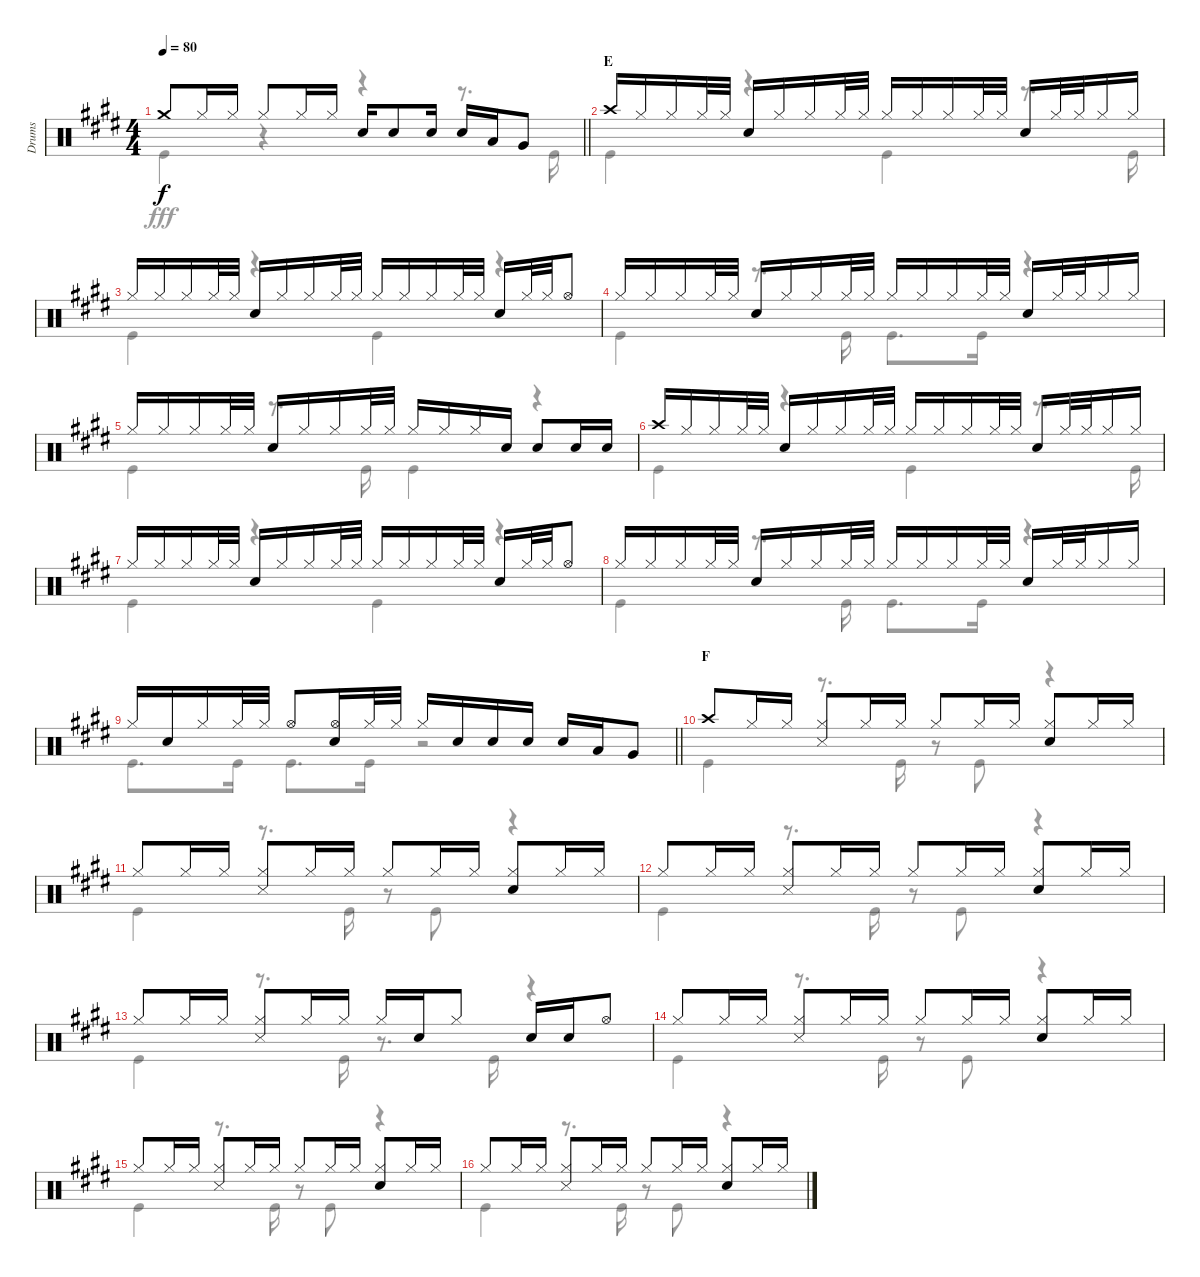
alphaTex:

\track ("Drums" "Drums") {instrument percussion}
\staff {score}
\articulation defaults
\voice
\ts (4 4)
\tempo 80
\clef neutral
\barLineRight lightlight
\ks e "Crash medium (hit)".8{dy f} "Hi-Hat (closed)".16 "Hi-Hat (closed)".16 "Hi-Hat (closed)".8 "Hi-Hat (closed)".16 "Hi-Hat (closed)".16 "Snare (hit) 2".16 "Snare (hit) 2".8 "Snare (hit) 2".16 "Snare (hit) 2".16 "Low Tom (hit)".16 "Very Low Tom (hit)".8
|
\section ("" "E")
"Crash high (hit)".16 "Hi-Hat (closed)".16 "Hi-Hat (closed)".16 "Hi-Hat (closed)".32 "Hi-Hat (closed)".32 "Snare (hit) 2".16 "Hi-Hat (closed)".16 "Hi-Hat (closed)".16 "Hi-Hat (closed)".32 "Hi-Hat (closed)".32 "Hi-Hat (closed)".16 "Hi-Hat (closed)".16 "Hi-Hat (closed)".16 "Hi-Hat (closed)".32 "Hi-Hat (closed)".32 "Snare (hit) 2".16 "Hi-Hat (closed)".32 "Hi-Hat (closed)".32 "Hi-Hat (closed)".16 "Hi-Hat (closed)".16 |
"Hi-Hat (closed)".16 "Hi-Hat (closed)".16 "Hi-Hat (closed)".16 "Hi-Hat (closed)".32 "Hi-Hat (closed)".32 "Snare (hit) 2".16 "Hi-Hat (closed)".16 "Hi-Hat (closed)".16 "Hi-Hat (closed)".32 "Hi-Hat (closed)".32 "Hi-Hat (closed)".16 "Hi-Hat (closed)".16 "Hi-Hat (closed)".16 "Hi-Hat (closed)".32 "Hi-Hat (closed)".32 "Snare (hit) 2".16 "Hi-Hat (closed)".32 "Hi-Hat (closed)".32 "Hi-Hat (open)".8 |
"Hi-Hat (closed)".16 "Hi-Hat (closed)".16 "Hi-Hat (closed)".16 "Hi-Hat (closed)".32 "Hi-Hat (closed)".32 "Snare (hit) 2".16 "Hi-Hat (closed)".16 "Hi-Hat (closed)".16 "Hi-Hat (closed)".32 "Hi-Hat (closed)".32 "Hi-Hat (closed)".16 "Hi-Hat (closed)".16 "Hi-Hat (closed)".16 "Hi-Hat (closed)".32 "Hi-Hat (closed)".32 "Snare (hit) 2".16 "Hi-Hat (closed)".32 "Hi-Hat (closed)".32 "Hi-Hat (closed)".16 "Hi-Hat (closed)".16 |
"Hi-Hat (closed)".16 "Hi-Hat (closed)".16 "Hi-Hat (closed)".16 "Hi-Hat (closed)".32 "Hi-Hat (closed)".32 "Snare (hit) 2".16 "Hi-Hat (closed)".16 "Hi-Hat (closed)".16 "Hi-Hat (closed)".32 "Hi-Hat (closed)".32 "Hi-Hat (closed)".16 "Hi-Hat (closed)".16 "Hi-Hat (closed)".16 "Snare (hit) 2".16 "Snare (hit) 2".8 "Snare (hit) 2".16 "Snare (hit) 2".16 |
"Crash high (hit)".16 "Hi-Hat (closed)".16 "Hi-Hat (closed)".16 "Hi-Hat (closed)".32 "Hi-Hat (closed)".32 "Snare (hit) 2".16 "Hi-Hat (closed)".16 "Hi-Hat (closed)".16 "Hi-Hat (closed)".32 "Hi-Hat (closed)".32 "Hi-Hat (closed)".16 "Hi-Hat (closed)".16 "Hi-Hat (closed)".16 "Hi-Hat (closed)".32 "Hi-Hat (closed)".32 "Snare (hit) 2".16 "Hi-Hat (closed)".32 "Hi-Hat (closed)".32 "Hi-Hat (closed)".16 "Hi-Hat (closed)".16 |
"Hi-Hat (closed)".16 "Hi-Hat (closed)".16 "Hi-Hat (closed)".16 "Hi-Hat (closed)".32 "Hi-Hat (closed)".32 "Snare (hit) 2".16 "Hi-Hat (closed)".16 "Hi-Hat (closed)".16 "Hi-Hat (closed)".32 "Hi-Hat (closed)".32 "Hi-Hat (closed)".16 "Hi-Hat (closed)".16 "Hi-Hat (closed)".16 "Hi-Hat (closed)".32 "Hi-Hat (closed)".32 "Snare (hit) 2".16 "Hi-Hat (closed)".32 "Hi-Hat (closed)".32 "Hi-Hat (open)".8 |
"Hi-Hat (closed)".16 "Hi-Hat (closed)".16 "Hi-Hat (closed)".16 "Hi-Hat (closed)".32 "Hi-Hat (closed)".32 "Snare (hit) 2".16 "Hi-Hat (closed)".16 "Hi-Hat (closed)".16 "Hi-Hat (closed)".32 "Hi-Hat (closed)".32 "Hi-Hat (closed)".16 "Hi-Hat (closed)".16 "Hi-Hat (closed)".16 "Hi-Hat (closed)".32 "Hi-Hat (closed)".32 "Snare (hit) 2".16 "Hi-Hat (closed)".32 "Hi-Hat (closed)".32 "Hi-Hat (closed)".16 "Hi-Hat (closed)".16 |
\barLineRight lightlight "Hi-Hat (closed)".16 "Snare (hit) 2".16 "Hi-Hat (closed)".16 "Hi-Hat (closed)".32 "Hi-Hat (closed)".32 "Hi-Hat (open)".8
("Hi-Hat (open)" "Snare (hit) 2").16 "Hi-Hat (closed)".32 "Hi-Hat (closed)".32 "Hi-Hat (closed)".16 "Snare (hit) 2".16 "Snare (hit) 2".16 "Snare (hit) 2".16 "Snare (hit) 2".16 "Low Tom (hit)".16 "Very Low Tom (hit)".8 |
\section ("" "F")
"Crash high (hit)".8 "Hi-Hat (closed)".16 "Hi-Hat (closed)".16 ("Hi-Hat (closed)" "Snare (side stick) 3").8 "Hi-Hat (closed)".16 "Hi-Hat (closed)".16 "Hi-Hat (closed)".8 "Hi-Hat (closed)".16 "Hi-Hat (closed)".16 ("Hi-Hat (closed)" "Snare (hit) 2").8 "Hi-Hat (closed)".16 "Hi-Hat (closed)".16 |
"Hi-Hat (closed)".8 "Hi-Hat (closed)".16 "Hi-Hat (closed)".16 ("Hi-Hat (closed)" "Snare (side stick) 3").8 "Hi-Hat (closed)".16 "Hi-Hat (closed)".16 "Hi-Hat (closed)".8 "Hi-Hat (closed)".16 "Hi-Hat (closed)".16 ("Hi-Hat (closed)" "Snare (hit) 2").8 "Hi-Hat (closed)".16 "Hi-Hat (closed)".16 |
"Hi-Hat (closed)".8 "Hi-Hat (closed)".16 "Hi-Hat (closed)".16 ("Hi-Hat (closed)" "Snare (side stick) 3").8 "Hi-Hat (closed)".16 "Hi-Hat (closed)".16 "Hi-Hat (closed)".8 "Hi-Hat (closed)".16 "Hi-Hat (closed)".16 ("Hi-Hat (closed)" "Snare (hit) 2").8 "Hi-Hat (closed)".16 "Hi-Hat (closed)".16 |
"Hi-Hat (closed)".8 "Hi-Hat (closed)".16 "Hi-Hat (closed)".16 ("Hi-Hat (closed)" "Snare (side stick) 3").8 "Hi-Hat (closed)".16 "Hi-Hat (closed)".16 "Hi-Hat (closed)".16 "Snare (hit) 2".16 "Hi-Hat (closed)".8 "Snare (hit) 2".16 "Snare (hit) 2".16 "Hi-Hat (open)".8 |
"Hi-Hat (closed)".8 "Hi-Hat (closed)".16 "Hi-Hat (closed)".16 ("Hi-Hat (closed)" "Snare (side stick) 3").8 "Hi-Hat (closed)".16 "Hi-Hat (closed)".16 "Hi-Hat (closed)".8 "Hi-Hat (closed)".16 "Hi-Hat (closed)".16 ("Hi-Hat (closed)" "Snare (hit) 2").8 "Hi-Hat (closed)".16 "Hi-Hat (closed)".16 |
"Hi-Hat (closed)".8 "Hi-Hat (closed)".16 "Hi-Hat (closed)".16 ("Hi-Hat (closed)" "Snare (side stick) 3").8 "Hi-Hat (closed)".16 "Hi-Hat (closed)".16 "Hi-Hat (closed)".8 "Hi-Hat (closed)".16 "Hi-Hat (closed)".16 ("Hi-Hat (closed)" "Snare (hit) 2").8 "Hi-Hat (closed)".16 "Hi-Hat (closed)".16 |
"Hi-Hat (closed)".8 "Hi-Hat (closed)".16 "Hi-Hat (closed)".16 ("Hi-Hat (closed)" "Snare (side stick) 3").8 "Hi-Hat (closed)".16 "Hi-Hat (closed)".16 "Hi-Hat (closed)".8 "Hi-Hat (closed)".16 "Hi-Hat (closed)".16 ("Hi-Hat (closed)" "Snare (hit) 2").8 "Hi-Hat (closed)".16 "Hi-Hat (closed)".16
\voice
\clef neutral
\ottava regular
\simile none
\barLineRight lightlight
\ks e "Kick (hit)".4{dy fff}
r.4 r.4 r.8{d} "Kick (hit)".16 |
"Kick (hit)".4 r.4 "Kick (hit)".4 r.8{d} "Kick (hit)".16 |
"Kick (hit)".4 r.4 "Kick (hit)".4 r.4 |
"Kick (hit)".4 r.8{d} "Kick (hit)".16 "Kick (hit)".8{d} "Kick (hit)".16 r.4 |
"Kick (hit)".4 r.8{d} "Kick (hit)".16 "Kick (hit)".4 r.4 |
"Kick (hit)".4 r.4 "Kick (hit)".4 r.8{d} "Kick (hit)".16 |
"Kick (hit)".4 r.4 "Kick (hit)".4 r.4 |
"Kick (hit)".4 r.8{d} "Kick (hit)".16 "Kick (hit)".8{d} "Kick (hit)".16 r.4 |
\barLineRight lightlight "Kick (hit)".8{d} "Kick (hit)".16 "Kick (hit)".8{d} "Kick (hit)".16
r.2 |
"Kick (hit)".4 r.8{d} "Kick (hit)".16 r.8 "Kick (hit)".8 r.4 |
"Kick (hit)".4 r.8{d} "Kick (hit)".16 r.8 "Kick (hit)".8 r.4 |
"Kick (hit)".4 r.8{d} "Kick (hit)".16 r.8 "Kick (hit)".8 r.4 |
"Kick (hit)".4 r.8{d} "Kick (hit)".16 r.8{d} "Kick (hit)".16 r.4 |
"Kick (hit)".4 r.8{d} "Kick (hit)".16 r.8 "Kick (hit)".8 r.4 |
"Kick (hit)".4 r.8{d} "Kick (hit)".16 r.8 "Kick (hit)".8 r.4 |
"Kick (hit)".4 r.8{d} "Kick (hit)".16 r.8 "Kick (hit)".8 r.4
